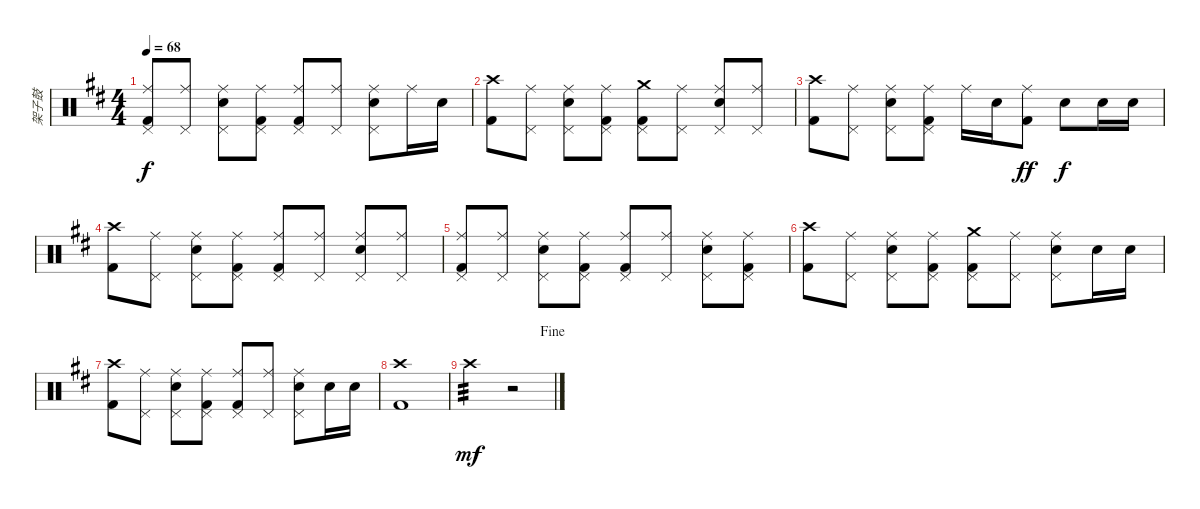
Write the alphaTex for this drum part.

\track ("架子鼓" "架子鼓") {instrument percussion}
\staff {score}
\articulation defaults
\ts (4 4)
\tempo 68
\clef neutral
\ks d
("Ride (middle)" "Pedal Hi-Hat (hit)" "Kick (hit) 2").8{dy f} ("Ride (middle)" "Pedal Hi-Hat (hit)").8 ("Ride (middle)" "Electric Snare (hit)" "Pedal Hi-Hat (hit)").8 ("Ride (middle)" "Pedal Hi-Hat (hit)" "Kick (hit) 2").8 ("Ride (middle)" "Pedal Hi-Hat (hit)" "Kick (hit) 2").8 ("Ride (middle)" "Pedal Hi-Hat (hit)").8 ("Ride (middle)" "Electric Snare (hit)" "Pedal Hi-Hat (hit)").8 "Ride (middle)".16 "Electric Snare (hit)".16 |
("Crash high (hit)" "Kick (hit) 2").8 ("Ride (middle)" "Pedal Hi-Hat (hit)").8 ("Ride (middle)" "Electric Snare (hit)" "Pedal Hi-Hat (hit)").8 ("Ride (middle)" "Pedal Hi-Hat (hit)" "Kick (hit) 2").8 ("Crash medium (hit)" "Pedal Hi-Hat (hit)" "Kick (hit) 2").8 ("Ride (middle)" "Pedal Hi-Hat (hit)").8 ("Ride (middle)" "Electric Snare (hit)" "Pedal Hi-Hat (hit)").8 ("Ride (middle)" "Pedal Hi-Hat (hit)").8 |
("Crash high (hit)" "Kick (hit) 2").8 ("Ride (middle)" "Pedal Hi-Hat (hit)").8 ("Ride (middle)" "Electric Snare (hit)" "Pedal Hi-Hat (hit)").8 ("Ride (middle)" "Pedal Hi-Hat (hit)" "Kick (hit) 2").8 "Ride (middle)".16 "Electric Snare (hit)".16 ("Ride (middle)" "Kick (hit) 2").8{dy ff} "Electric Snare (hit)".8{dy f} "Electric Snare (hit)".16 "Electric Snare (hit)".16 |
("Crash high (hit)" "Kick (hit) 2").8 ("Ride (middle)" "Pedal Hi-Hat (hit)").8 ("Ride (middle)" "Electric Snare (hit)" "Pedal Hi-Hat (hit)").8 ("Ride (middle)" "Pedal Hi-Hat (hit)" "Kick (hit) 2").8 ("Ride (middle)" "Pedal Hi-Hat (hit)" "Kick (hit) 2").8 ("Ride (middle)" "Pedal Hi-Hat (hit)").8 ("Ride (middle)" "Electric Snare (hit)" "Pedal Hi-Hat (hit)").8 ("Ride (middle)" "Pedal Hi-Hat (hit)").8 |
("Ride (middle)" "Pedal Hi-Hat (hit)" "Kick (hit) 2").8 ("Ride (middle)" "Pedal Hi-Hat (hit)").8 ("Ride (middle)" "Electric Snare (hit)" "Pedal Hi-Hat (hit)").8 ("Ride (middle)" "Pedal Hi-Hat (hit)" "Kick (hit) 2").8 ("Ride (middle)" "Pedal Hi-Hat (hit)" "Kick (hit) 2").8 ("Ride (middle)" "Pedal Hi-Hat (hit)").8 ("Ride (middle)" "Electric Snare (hit)" "Pedal Hi-Hat (hit)").8 ("Ride (middle)" "Pedal Hi-Hat (hit)" "Kick (hit) 2").8 |
("Crash high (hit)" "Kick (hit) 2").8 ("Ride (middle)" "Pedal Hi-Hat (hit)").8 ("Ride (middle)" "Electric Snare (hit)" "Pedal Hi-Hat (hit)").8 ("Ride (middle)" "Pedal Hi-Hat (hit)" "Kick (hit) 2").8 ("Crash medium (hit)" "Pedal Hi-Hat (hit)" "Kick (hit) 2").8 ("Ride (middle)" "Pedal Hi-Hat (hit)").8 ("Ride (middle)" "Electric Snare (hit)" "Pedal Hi-Hat (hit)").8 "Electric Snare (hit)".16 "Electric Snare (hit)".16 |
("Crash high (hit)" "Kick (hit) 2").8 ("Ride (middle)" "Pedal Hi-Hat (hit)").8 ("Ride (middle)" "Electric Snare (hit)" "Pedal Hi-Hat (hit)").8 ("Ride (middle)" "Pedal Hi-Hat (hit)" "Kick (hit) 2").8 ("Ride (middle)" "Pedal Hi-Hat (hit)" "Kick (hit) 2").8 ("Ride (middle)" "Pedal Hi-Hat (hit)").8 ("Ride (middle)" "Electric Snare (hit)" "Pedal Hi-Hat (hit)").8 "Electric Snare (hit)".16 "Electric Snare (hit)".16 |
("Crash high (hit)" "Kick (hit) 2").1 |
\jump fine "Crash high (hit)".2{tp 3 dy mf}
r.2
